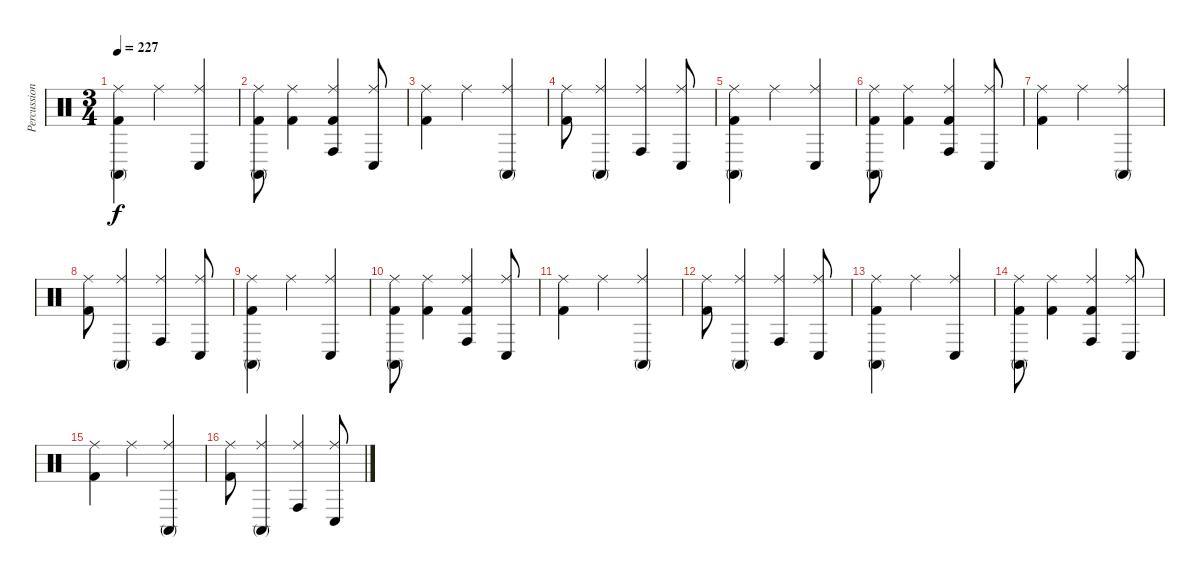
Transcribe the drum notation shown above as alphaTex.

\track ("Percussion" "Percussion") {instrument percussion}
\staff {score}
\articulation defaults
\ts (3 4)
\tempo 227
\clef neutral
\ks c
("Ride (middle)" "Conga high (mute)" "Kick (hit) 2").4{dy f} "Ride (middle)".4 ("Ride (middle)" "Conga low (hit)").4 |
("Ride (middle)" "Conga high (mute)" "Kick (hit) 2").8 ("Ride (middle)" "Kick (hit) 2").4 ("Ride (middle)" "Conga high (hit)" "Kick (hit) 2").4 ("Ride (middle)" "Conga low (hit)").8 |
("Ride (middle)" "Kick (hit) 2").4 "Ride (middle)".4 ("Ride (middle)" "Conga high (mute)").4 |
("Ride (middle)" "Kick (hit) 2").8 ("Ride (middle)" "Conga high (mute)").4 ("Ride (middle)" "Conga high (hit)").4 ("Ride (middle)" "Conga low (hit)").8 |
("Ride (middle)" "Conga high (mute)" "Kick (hit) 2").4 "Ride (middle)".4 ("Ride (middle)" "Conga low (hit)").4 |
("Ride (middle)" "Conga high (mute)" "Kick (hit) 2").8 ("Ride (middle)" "Kick (hit) 2").4 ("Ride (middle)" "Conga high (hit)" "Kick (hit) 2").4 ("Ride (middle)" "Conga low (hit)").8 |
("Ride (middle)" "Kick (hit) 2").4 "Ride (middle)".4 ("Ride (middle)" "Conga high (mute)").4 |
("Ride (middle)" "Kick (hit) 2").8 ("Ride (middle)" "Conga high (mute)").4 ("Ride (middle)" "Conga high (hit)").4 ("Ride (middle)" "Conga low (hit)").8 |
("Ride (middle)" "Conga high (mute)" "Kick (hit) 2").4 "Ride (middle)".4 ("Ride (middle)" "Conga low (hit)").4 |
("Ride (middle)" "Conga high (mute)" "Kick (hit) 2").8 ("Ride (middle)" "Kick (hit) 2").4 ("Ride (middle)" "Conga high (hit)" "Kick (hit) 2").4 ("Ride (middle)" "Conga low (hit)").8 |
("Ride (middle)" "Kick (hit) 2").4 "Ride (middle)".4 ("Ride (middle)" "Conga high (mute)").4 |
("Ride (middle)" "Kick (hit) 2").8 ("Ride (middle)" "Conga high (mute)").4 ("Ride (middle)" "Conga high (hit)").4 ("Ride (middle)" "Conga low (hit)").8 |
("Ride (middle)" "Conga high (mute)" "Kick (hit) 2").4 "Ride (middle)".4 ("Ride (middle)" "Conga low (hit)").4 |
("Ride (middle)" "Conga high (mute)" "Kick (hit) 2").8 ("Ride (middle)" "Kick (hit) 2").4 ("Ride (middle)" "Conga high (hit)" "Kick (hit) 2").4 ("Ride (middle)" "Conga low (hit)").8 |
("Ride (middle)" "Kick (hit) 2").4 "Ride (middle)".4 ("Ride (middle)" "Conga high (mute)").4 |
("Ride (middle)" "Kick (hit) 2").8 ("Ride (middle)" "Conga high (mute)").4 ("Ride (middle)" "Conga high (hit)").4 ("Ride (middle)" "Conga low (hit)").8
